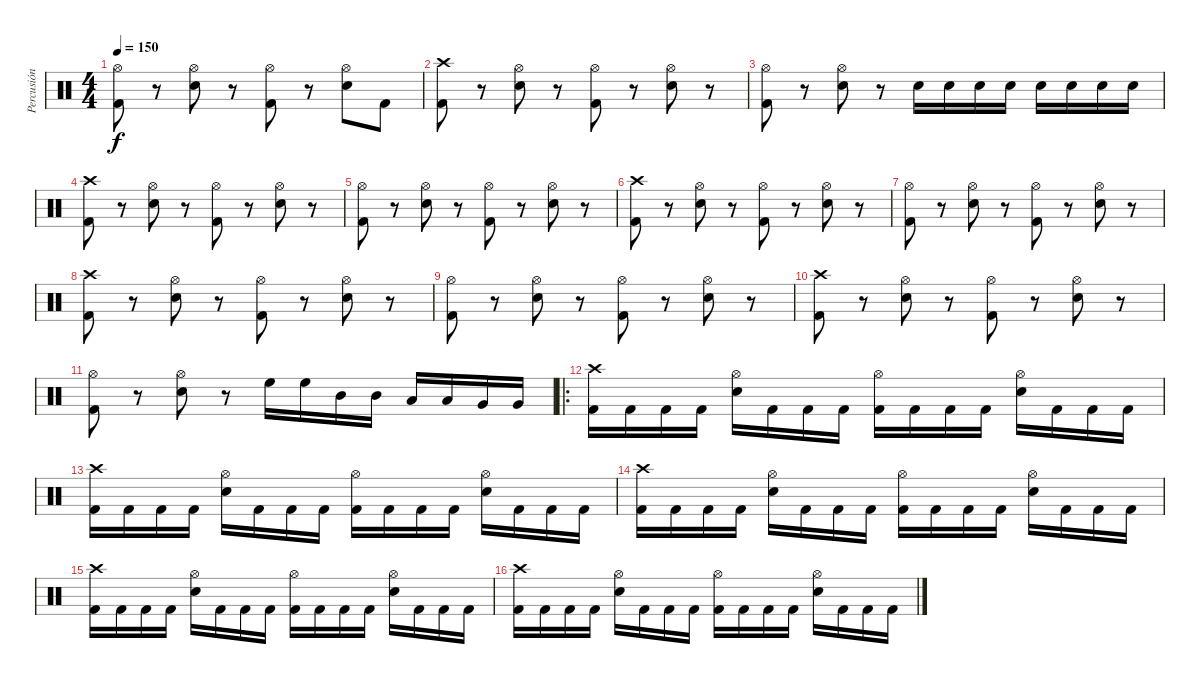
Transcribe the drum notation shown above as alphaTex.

\track ("Percusión" "Percusión") {instrument percussion}
\staff {score}
\articulation defaults
\ts (4 4)
\tempo 150
\clef neutral
\ks c
("Hi-Hat (open)" "Kick (hit) 2").8{dy f} r.8 ("Hi-Hat (open)" "Electric Snare (hit)").8 r.8 ("Hi-Hat (open)" "Kick (hit) 2").8 r.8 ("Hi-Hat (open)" "Electric Snare (hit)").8 "Kick (hit) 2".8 |
("Crash high (hit)" "Kick (hit) 2").8 r.8 ("Hi-Hat (open)" "Electric Snare (hit)").8 r.8 ("Hi-Hat (open)" "Kick (hit) 2").8 r.8 ("Hi-Hat (open)" "Electric Snare (hit)").8 r.8 |
("Hi-Hat (open)" "Kick (hit) 2").8 r.8 ("Hi-Hat (open)" "Electric Snare (hit)").8 r.8 "Electric Snare (hit)".16 "Electric Snare (hit)".16 "Electric Snare (hit)".16 "Electric Snare (hit)".16 "Electric Snare (hit)".16 "Electric Snare (hit)".16 "Electric Snare (hit)".16 "Electric Snare (hit)".16 |
("Crash high (hit)" "Kick (hit) 2").8 r.8 ("Hi-Hat (open)" "Electric Snare (hit)").8 r.8 ("Hi-Hat (open)" "Kick (hit) 2").8 r.8 ("Hi-Hat (open)" "Electric Snare (hit)").8 r.8 |
("Hi-Hat (open)" "Kick (hit) 2").8 r.8 ("Hi-Hat (open)" "Electric Snare (hit)").8 r.8 ("Hi-Hat (open)" "Kick (hit) 2").8 r.8 ("Hi-Hat (open)" "Electric Snare (hit)").8 r.8 |
("Crash high (hit)" "Kick (hit) 2").8 r.8 ("Hi-Hat (open)" "Electric Snare (hit)").8 r.8 ("Hi-Hat (open)" "Kick (hit) 2").8 r.8 ("Hi-Hat (open)" "Electric Snare (hit)").8 r.8 |
("Hi-Hat (open)" "Kick (hit) 2").8 r.8 ("Hi-Hat (open)" "Electric Snare (hit)").8 r.8 ("Hi-Hat (open)" "Kick (hit) 2").8 r.8 ("Hi-Hat (open)" "Electric Snare (hit)").8 r.8 |
("Crash high (hit)" "Kick (hit) 2").8 r.8 ("Hi-Hat (open)" "Electric Snare (hit)").8 r.8 ("Hi-Hat (open)" "Kick (hit) 2").8 r.8 ("Hi-Hat (open)" "Electric Snare (hit)").8 r.8 |
("Hi-Hat (open)" "Kick (hit) 2").8 r.8 ("Hi-Hat (open)" "Electric Snare (hit)").8 r.8 ("Hi-Hat (open)" "Kick (hit) 2").8 r.8 ("Hi-Hat (open)" "Electric Snare (hit)").8 r.8 |
("Crash high (hit)" "Kick (hit) 2").8 r.8 ("Hi-Hat (open)" "Electric Snare (hit)").8 r.8 ("Hi-Hat (open)" "Kick (hit) 2").8 r.8 ("Hi-Hat (open)" "Electric Snare (hit)").8 r.8 |
("Hi-Hat (open)" "Kick (hit) 2").8 r.8 ("Hi-Hat (open)" "Electric Snare (hit)").8 r.8 "High Floor Tom (hit)".16 "High Floor Tom (hit)".16 "Mid Tom (hit)".16 "Mid Tom (hit)".16 "Low Tom (hit)".16 "Low Tom (hit)".16 "Very Low Tom (hit)".16 "Very Low Tom (hit)".16 |
\ro
("Crash high (hit)" "Kick (hit) 2").16 "Kick (hit) 2".16 "Kick (hit) 2".16 "Kick (hit) 2".16 ("Hi-Hat (open)" "Electric Snare (hit)").16 "Kick (hit) 2".16 "Kick (hit) 2".16 "Kick (hit) 2".16 ("Hi-Hat (open)" "Kick (hit) 2").16 "Kick (hit) 2".16 "Kick (hit) 2".16 "Kick (hit) 2".16 ("Hi-Hat (open)" "Electric Snare (hit)").16 "Kick (hit) 2".16 "Kick (hit) 2".16 "Kick (hit) 2".16 |
("Crash high (hit)" "Kick (hit) 2").16 "Kick (hit) 2".16 "Kick (hit) 2".16 "Kick (hit) 2".16 ("Hi-Hat (open)" "Electric Snare (hit)").16 "Kick (hit) 2".16 "Kick (hit) 2".16 "Kick (hit) 2".16 ("Hi-Hat (open)" "Kick (hit) 2").16 "Kick (hit) 2".16 "Kick (hit) 2".16 "Kick (hit) 2".16 ("Hi-Hat (open)" "Electric Snare (hit)").16 "Kick (hit) 2".16 "Kick (hit) 2".16 "Kick (hit) 2".16 |
("Crash high (hit)" "Kick (hit) 2").16 "Kick (hit) 2".16 "Kick (hit) 2".16 "Kick (hit) 2".16 ("Hi-Hat (open)" "Electric Snare (hit)").16 "Kick (hit) 2".16 "Kick (hit) 2".16 "Kick (hit) 2".16 ("Hi-Hat (open)" "Kick (hit) 2").16 "Kick (hit) 2".16 "Kick (hit) 2".16 "Kick (hit) 2".16 ("Hi-Hat (open)" "Electric Snare (hit)").16 "Kick (hit) 2".16 "Kick (hit) 2".16 "Kick (hit) 2".16 |
("Crash high (hit)" "Kick (hit) 2").16 "Kick (hit) 2".16 "Kick (hit) 2".16 "Kick (hit) 2".16 ("Hi-Hat (open)" "Electric Snare (hit)").16 "Kick (hit) 2".16 "Kick (hit) 2".16 "Kick (hit) 2".16 ("Hi-Hat (open)" "Kick (hit) 2").16 "Kick (hit) 2".16 "Kick (hit) 2".16 "Kick (hit) 2".16 ("Hi-Hat (open)" "Electric Snare (hit)").16 "Kick (hit) 2".16 "Kick (hit) 2".16 "Kick (hit) 2".16 |
("Crash high (hit)" "Kick (hit) 2").16 "Kick (hit) 2".16 "Kick (hit) 2".16 "Kick (hit) 2".16 ("Hi-Hat (open)" "Electric Snare (hit)").16 "Kick (hit) 2".16 "Kick (hit) 2".16 "Kick (hit) 2".16 ("Hi-Hat (open)" "Kick (hit) 2").16 "Kick (hit) 2".16 "Kick (hit) 2".16 "Kick (hit) 2".16 ("Hi-Hat (open)" "Electric Snare (hit)").16 "Kick (hit) 2".16 "Kick (hit) 2".16 "Kick (hit) 2".16
